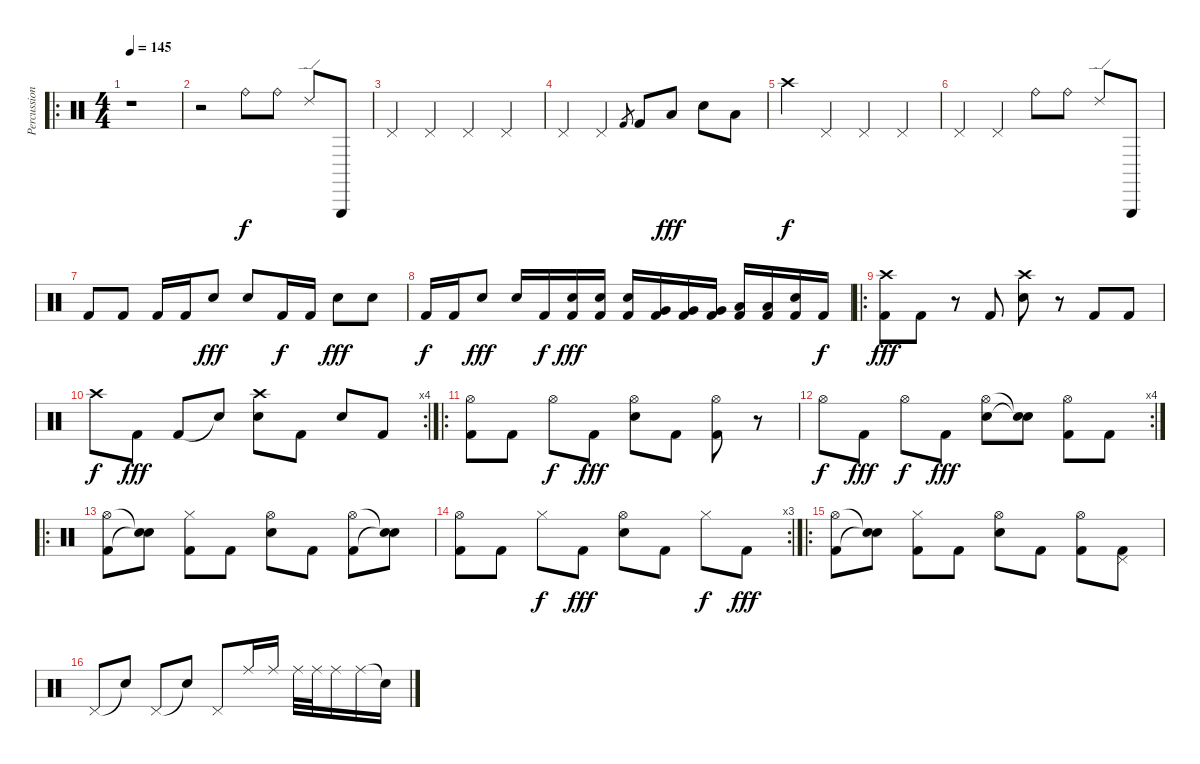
\track ("Percussion" "Percussion") {instrument percussion}
\staff {score}
\articulation defaults
\ro
\ts (4 4)
\tempo 145
\clef neutral
\ks c
r.1{dy f} |
r.2 "Ride (bell)".8 "Ride (bell)".8 "Ride (edge) 2".8 "Triangle (hit)".8 |
"Pedal Hi-Hat (hit)".4 "Pedal Hi-Hat (hit)".4 "Pedal Hi-Hat (hit)".4 "Pedal Hi-Hat (hit)".4 |
"Pedal Hi-Hat (hit)".4 "Pedal Hi-Hat (hit)".4 "Kick (hit) 2".8{gr} "Kick (hit) 2".8 "Low Floor Tom (hit)".8{dy fff} "Electric Snare (hit)".8 "Low Floor Tom (hit)".8 |
"Crash high (hit)".4{dy f} "Pedal Hi-Hat (hit)".4 "Pedal Hi-Hat (hit)".4 "Pedal Hi-Hat (hit)".4 |
"Pedal Hi-Hat (hit)".4 "Pedal Hi-Hat (hit)".4 "Ride (bell)".8 "Ride (bell)".8 "Ride (edge) 2".8 "Triangle (hit)".8 |
"Kick (hit) 2".8 "Kick (hit) 2".8 "Kick (hit) 2".16 "Kick (hit) 2".16 "Electric Snare (hit)".8{dy fff} "Electric Snare (hit)".8 "Kick (hit) 2".16{dy f} "Kick (hit) 2".16 "Electric Snare (hit)".8{dy fff} "Electric Snare (hit)".8 |
"Kick (hit) 2".16{dy f} "Kick (hit) 2".16 "Electric Snare (hit)".8{dy fff} "Electric Snare (hit)".16 "Kick (hit) 2".16{dy f} ("Kick (hit) 2" "Electric Snare (hit)").16{dy fff} ("Kick (hit) 2" "Electric Snare (hit)").16 ("Kick (hit) 2" "Electric Snare (hit)").16 ("Kick (hit) 2" "Very Low Tom (hit)").16 ("Kick (hit) 2" "Very Low Tom (hit)").16 ("Kick (hit) 2" "Very Low Tom (hit)").16 ("Kick (hit) 2" "Low Floor Tom (hit)").16 ("Kick (hit) 2" "Low Floor Tom (hit)").16 ("Kick (hit) 2" "Electric Snare (hit)").16 "Kick (hit) 2".16{dy f} |
\ro
("Crash high (hit)" "Kick (hit) 2").8{dy fff} "Kick (hit) 2".8 r.8 "Kick (hit) 2".8 ("Crash high (hit)" "Electric Snare (hit)").8 r.8 "Kick (hit) 2".8 "Kick (hit) 2".8 |
\rc 4 "Crash high (hit)".8{dy f} "Kick (hit) 2".8{dy fff} "Kick (hit) 2".8 "Snare (hit)"{t}.8
("Crash high (hit)" "Electric Snare (hit)").8 "Kick (hit) 2".8 "Electric Snare (hit)".8 "Kick (hit) 2".8 |
\ro
("Hi-Hat (open)" "Kick (hit) 2").8 "Kick (hit) 2".8 "Hi-Hat (open)".8{dy f} "Kick (hit) 2".8{dy fff} ("Hi-Hat (open)" "Electric Snare (hit)").8 "Kick (hit) 2".8 ("Hi-Hat (open)" "Kick (hit) 2").8 r.8 |
\rc 4 "Hi-Hat (open)".8{dy f} "Kick (hit) 2".8{dy fff} "Hi-Hat (open)".8{dy f} "Kick (hit) 2".8{dy fff}
("Hi-Hat (open)" "Electric Snare (hit)").8 ("Snare (hit)"{t} "Snare (hit)"{t}).8 ("Hi-Hat (open)" "Kick (hit) 2").8 "Kick (hit) 2".8 |
\ro
("Hi-Hat (open)" "Kick (hit) 2").8 ("Snare (hit)"{t} "Snare (hit)"{t}).8 ("Hi-Hat (closed)" "Kick (hit) 2").8 "Kick (hit) 2".8 ("Hi-Hat (open)" "Electric Snare (hit)").8 "Kick (hit) 2".8 ("Hi-Hat (open)" "Kick (hit) 2").8 ("Snare (hit)"{t} "Snare (hit)"{t}).8 |
\rc 3
("Hi-Hat (open)" "Kick (hit) 2").8 "Kick (hit) 2".8 "Hi-Hat (closed)".8{dy f} "Kick (hit) 2".8{dy fff} ("Hi-Hat (open)" "Electric Snare (hit)").8 "Kick (hit) 2".8 "Hi-Hat (closed)".8{dy f} "Kick (hit) 2".8{dy fff} |
\ro
("Hi-Hat (open)" "Kick (hit) 2").8 ("Snare (hit)"{t} "Snare (hit)"{t}).8 ("Hi-Hat (closed)" "Kick (hit) 2").8 "Kick (hit) 2".8 ("Hi-Hat (open)" "Electric Snare (hit)").8 "Kick (hit) 2".8 ("Hi-Hat (open)" "Kick (hit) 2").8 ("Pedal Hi-Hat (hit)" "Kick (hit) 2").8 |
"Pedal Hi-Hat (hit)".8 "Snare (hit)"{t}.8 "Pedal Hi-Hat (hit)".8 "Snare (hit)"{t}.8 "Pedal Hi-Hat (hit)".8 "Ride (middle)".16 "Ride (middle)".16 "Ride (middle)".32 "Ride (middle)".32 "Ride (middle)".16 "Ride (middle)".16 "Snare (hit)"{t}.16
